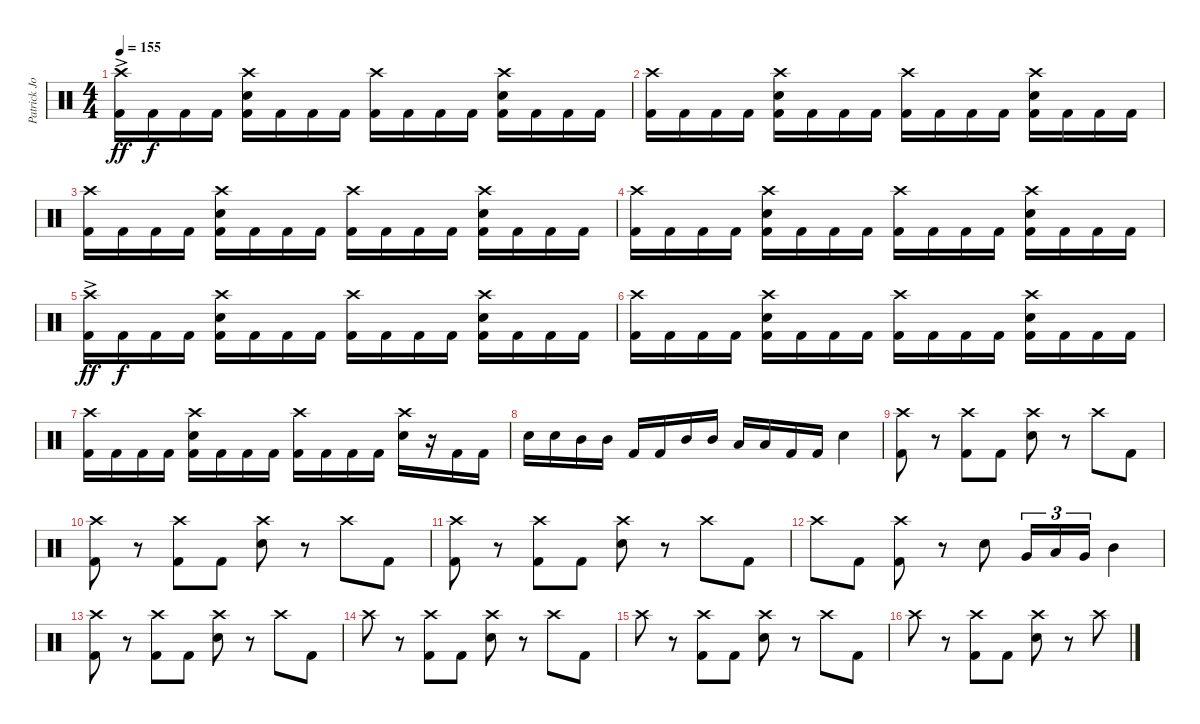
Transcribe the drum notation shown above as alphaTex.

\track ("Patrick Johansson" "Patrick Jo") {instrument percussion}
\staff {score}
\articulation defaults
\ts (4 4)
\tempo 155
\clef neutral
\ks c
("Crash high (hit)"{ac} "Kick (hit) 2").16{dy ff} "Kick (hit) 2".16{dy f} "Kick (hit) 2".16 "Kick (hit) 2".16 ("Crash high (hit)" "Electric Snare (hit)" "Kick (hit) 2").16 "Kick (hit) 2".16 "Kick (hit) 2".16 "Kick (hit) 2".16 ("Crash high (hit)" "Kick (hit) 2").16 "Kick (hit) 2".16 "Kick (hit) 2".16 "Kick (hit) 2".16 ("Crash high (hit)" "Electric Snare (hit)" "Kick (hit) 2").16 "Kick (hit) 2".16 "Kick (hit) 2".16 "Kick (hit) 2".16 |
("Crash high (hit)" "Kick (hit) 2").16 "Kick (hit) 2".16 "Kick (hit) 2".16 "Kick (hit) 2".16 ("Crash high (hit)" "Electric Snare (hit)" "Kick (hit) 2").16 "Kick (hit) 2".16 "Kick (hit) 2".16 "Kick (hit) 2".16 ("Crash high (hit)" "Kick (hit) 2").16 "Kick (hit) 2".16 "Kick (hit) 2".16 "Kick (hit) 2".16 ("Crash high (hit)" "Electric Snare (hit)" "Kick (hit) 2").16 "Kick (hit) 2".16 "Kick (hit) 2".16 "Kick (hit) 2".16 |
("Crash high (hit)" "Kick (hit) 2").16 "Kick (hit) 2".16 "Kick (hit) 2".16 "Kick (hit) 2".16 ("Crash high (hit)" "Electric Snare (hit)" "Kick (hit) 2").16 "Kick (hit) 2".16 "Kick (hit) 2".16 "Kick (hit) 2".16 ("Crash high (hit)" "Kick (hit) 2").16 "Kick (hit) 2".16 "Kick (hit) 2".16 "Kick (hit) 2".16 ("Crash high (hit)" "Electric Snare (hit)" "Kick (hit) 2").16 "Kick (hit) 2".16 "Kick (hit) 2".16 "Kick (hit) 2".16 |
("Crash high (hit)" "Kick (hit) 2").16 "Kick (hit) 2".16 "Kick (hit) 2".16 "Kick (hit) 2".16 ("Crash high (hit)" "Electric Snare (hit)" "Kick (hit) 2").16 "Kick (hit) 2".16 "Kick (hit) 2".16 "Kick (hit) 2".16 ("Crash high (hit)" "Kick (hit) 2").16 "Kick (hit) 2".16 "Kick (hit) 2".16 "Kick (hit) 2".16 ("Crash high (hit)" "Electric Snare (hit)" "Kick (hit) 2").16 "Kick (hit) 2".16 "Kick (hit) 2".16 "Kick (hit) 2".16 |
("Crash high (hit)"{ac} "Kick (hit) 2").16{dy ff} "Kick (hit) 2".16{dy f} "Kick (hit) 2".16 "Kick (hit) 2".16 ("Crash high (hit)" "Electric Snare (hit)" "Kick (hit) 2").16 "Kick (hit) 2".16 "Kick (hit) 2".16 "Kick (hit) 2".16 ("Crash high (hit)" "Kick (hit) 2").16 "Kick (hit) 2".16 "Kick (hit) 2".16 "Kick (hit) 2".16 ("Crash high (hit)" "Electric Snare (hit)" "Kick (hit) 2").16 "Kick (hit) 2".16 "Kick (hit) 2".16 "Kick (hit) 2".16 |
("Crash high (hit)" "Kick (hit) 2").16 "Kick (hit) 2".16 "Kick (hit) 2".16 "Kick (hit) 2".16 ("Crash high (hit)" "Electric Snare (hit)" "Kick (hit) 2").16 "Kick (hit) 2".16 "Kick (hit) 2".16 "Kick (hit) 2".16 ("Crash high (hit)" "Kick (hit) 2").16 "Kick (hit) 2".16 "Kick (hit) 2".16 "Kick (hit) 2".16 ("Crash high (hit)" "Electric Snare (hit)" "Kick (hit) 2").16 "Kick (hit) 2".16 "Kick (hit) 2".16 "Kick (hit) 2".16 |
("Crash high (hit)" "Kick (hit) 2").16 "Kick (hit) 2".16 "Kick (hit) 2".16 "Kick (hit) 2".16 ("Crash high (hit)" "Electric Snare (hit)" "Kick (hit) 2").16 "Kick (hit) 2".16 "Kick (hit) 2".16 "Kick (hit) 2".16 ("Crash high (hit)" "Kick (hit) 2").16 "Kick (hit) 2".16 "Kick (hit) 2".16 "Kick (hit) 2".16 ("Crash high (hit)" "Electric Snare (hit)").16 r.16 "Kick (hit) 2".16 "Kick (hit) 2".16 |
"Electric Snare (hit)".16 "Electric Snare (hit)".16 "Mid Tom (hit)".16 "Mid Tom (hit)".16 "Kick (hit) 2".16 "Kick (hit) 2".16 "Mid Tom (hit)".16 "Mid Tom (hit)".16 "Low Tom (hit)".16 "Low Tom (hit)".16 "Kick (hit) 2".16 "Kick (hit) 2".16 "Electric Snare (hit)".4 |
("Crash high (hit)" "Kick (hit) 2").8 r.8 ("Crash high (hit)" "Kick (hit) 2").8 "Kick (hit) 2".8 ("Crash high (hit)" "Electric Snare (hit)").8 r.8 "Crash high (hit)".8 "Kick (hit) 2".8 |
("Crash high (hit)" "Kick (hit) 2").8 r.8 ("Crash high (hit)" "Kick (hit) 2").8 "Kick (hit) 2".8 ("Crash high (hit)" "Electric Snare (hit)").8 r.8 "Crash high (hit)".8 "Kick (hit) 2".8 |
("Crash high (hit)" "Kick (hit) 2").8 r.8 ("Crash high (hit)" "Kick (hit) 2").8 "Kick (hit) 2".8 ("Crash high (hit)" "Electric Snare (hit)").8 r.8 "Crash high (hit)".8 "Kick (hit) 2".8 |
"Crash high (hit)".8 "Kick (hit) 2".8 ("Crash high (hit)" "Kick (hit) 2").8 r.8 "Electric Snare (hit)".8 "Very Low Tom (hit)".16{tu (3 2)} "Low Tom (hit)".16{tu (3 2)} "Very Low Tom (hit)".16{tu (3 2)} "Mid Tom (hit)".4 |
("Crash high (hit)" "Kick (hit) 2").8 r.8 ("Crash high (hit)" "Kick (hit) 2").8 "Kick (hit) 2".8 ("Crash high (hit)" "Electric Snare (hit)").8 r.8 "Crash high (hit)".8 "Kick (hit) 2".8 |
"Crash high (hit)".8 r.8 ("Crash high (hit)" "Kick (hit) 2").8 "Kick (hit) 2".8 ("Crash high (hit)" "Electric Snare (hit)").8 r.8 "Crash high (hit)".8 "Kick (hit) 2".8 |
"Crash high (hit)".8 r.8 ("Crash high (hit)" "Kick (hit) 2").8 "Kick (hit) 2".8 ("Crash high (hit)" "Electric Snare (hit)").8 r.8 "Crash high (hit)".8 "Kick (hit) 2".8 |
"Crash high (hit)".8 r.8 ("Crash high (hit)" "Kick (hit) 2").8 "Kick (hit) 2".8 ("Crash high (hit)" "Electric Snare (hit)").8 r.8 "Crash high (hit)".8
